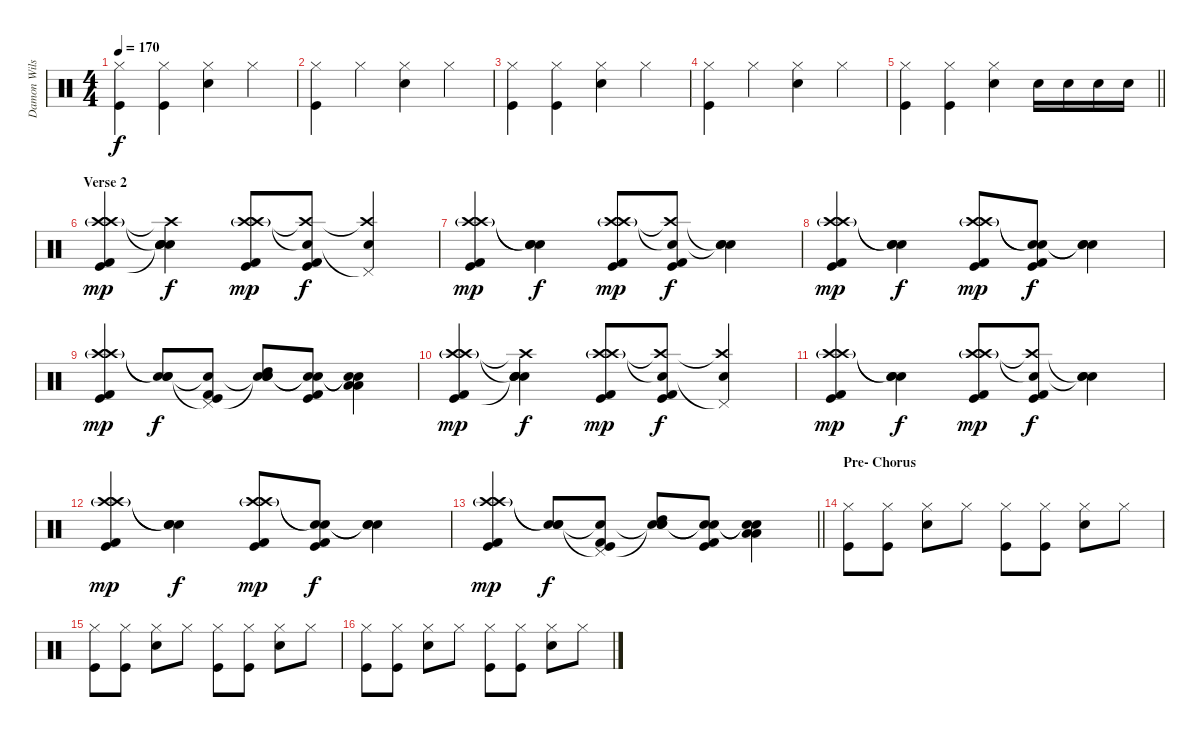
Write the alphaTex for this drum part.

\track ("Damon Wilson" "Damon Wils") {instrument percussion}
\staff {score}
\articulation defaults
\ts (4 4)
\tempo 170
\clef neutral
\ks c
("Hi-Hat (closed)" "Kick (hit)").4{dy f} ("Hi-Hat (closed)" "Kick (hit)").4 ("Hi-Hat (closed)" "Snare (hit) 2").4 "Hi-Hat (closed)".4 |
("Hi-Hat (closed)" "Kick (hit)").4 "Hi-Hat (closed)".4 ("Hi-Hat (closed)" "Snare (hit) 2").4 "Hi-Hat (closed)".4 |
("Hi-Hat (closed)" "Kick (hit)").4 ("Hi-Hat (closed)" "Kick (hit)").4 ("Hi-Hat (closed)" "Snare (hit) 2").4 "Hi-Hat (closed)".4 |
("Hi-Hat (closed)" "Kick (hit)").4 "Hi-Hat (closed)".4 ("Hi-Hat (closed)" "Snare (hit) 2").4 "Hi-Hat (closed)".4 |
\barLineRight lightlight
("Hi-Hat (closed)" "Kick (hit)").4 ("Hi-Hat (closed)" "Kick (hit)").4 ("Hi-Hat (closed)" "Snare (hit) 2").4 "Snare (hit) 2".16 "Snare (hit) 2".16 "Snare (hit) 2".16 "Snare (hit) 2".16 |
\section ("" "Verse 2")
("Crash high (hit)"{g} "Crash high (hit)"{g} "Kick (hit) 2" "Kick (hit)").4{dy mp} ("Snare (hit)"{t} "Crash high (hit)"{t} "Snare (hit) 2" "Snare (hit)"{t} "Snare (hit)").4{dy f} ("Crash high (hit)"{g} "Crash high (hit)"{g} "Kick (hit) 2" "Kick (hit)").8{dy mp} ("Snare (hit)"{t} "Crash high (hit)"{t} "Kick (hit) 2" "Kick (hit)").8{dy f} ("Pedal Hi-Hat (hit)"{t} "Crash high (hit)"{t} "Snare (hit) 2").4 |
("Crash high (hit)"{g} "Crash high (hit)"{g} "Kick (hit) 2" "Kick (hit)").4{dy mp} ("Snare (hit)"{t} "Snare (hit)"{t} "Snare (hit) 2").4{dy f} ("Crash high (hit)"{g} "Crash high (hit)"{g} "Kick (hit) 2" "Kick (hit)").8{dy mp} ("Crash high (hit)"{t} "Snare (hit)"{t} "Kick (hit) 2" "Kick (hit)").8{dy f} ("Snare (hit)"{t} "Snare (hit)"{t} "Snare (hit) 2").4 |
("Crash high (hit)"{g} "Crash high (hit)"{g} "Kick (hit) 2" "Kick (hit)").4{dy mp} ("Snare (hit)"{t} "Snare (hit)"{t} "Snare (hit) 2").4{dy f} ("Crash high (hit)"{g} "Crash high (hit)"{g} "Kick (hit) 2" "Kick (hit)").8{dy mp} ("Snare (hit)"{t} "Snare (hit)"{t} "Kick (hit) 2" "Kick (hit)").8{dy f} ("Snare (hit)"{t} "Snare (hit)"{t} "Snare (hit) 2").4 |
("Crash high (hit)"{g} "Crash high (hit)"{g} "Kick (hit) 2" "Kick (hit)").4{dy mp} ("Snare (hit)"{t} "Snare (hit)"{t} "Snare (hit) 2").8{dy f} ("Pedal Hi-Hat (hit)"{t} "Snare (hit)"{t} "Kick (hit) 2" "Kick (hit)").8 ("Snare (hit)"{t} "Snare (hit)"{t} "Snare (hit) 2" "High Tom (hit)").8 ("Snare (hit)"{t} "Snare (hit)"{t} "Kick (hit) 2" "Kick (hit)").8 ("Snare (hit)"{t} "Snare (hit)"{t} "Low Tom (hit)" "Low Floor Tom (hit)").4 |
("Crash high (hit)"{g} "Crash high (hit)"{g} "Kick (hit) 2" "Kick (hit)").4{dy mp} ("Snare (hit)"{t} "Crash high (hit)"{t} "Snare (hit) 2" "Snare (hit)"{t} "Snare (hit)").4{dy f} ("Crash high (hit)"{g} "Crash high (hit)"{g} "Kick (hit) 2" "Kick (hit)").8{dy mp} ("Snare (hit)"{t} "Crash high (hit)"{t} "Kick (hit) 2" "Kick (hit)").8{dy f} ("Pedal Hi-Hat (hit)"{t} "Crash high (hit)"{t} "Snare (hit) 2").4 |
("Crash high (hit)"{g} "Crash high (hit)"{g} "Kick (hit) 2" "Kick (hit)").4{dy mp} ("Snare (hit)"{t} "Snare (hit)"{t} "Snare (hit) 2").4{dy f} ("Crash high (hit)"{g} "Crash high (hit)"{g} "Kick (hit) 2" "Kick (hit)").8{dy mp} ("Crash high (hit)"{t} "Snare (hit)"{t} "Kick (hit) 2" "Kick (hit)").8{dy f} ("Snare (hit)"{t} "Snare (hit)"{t} "Snare (hit) 2").4 |
("Crash high (hit)"{g} "Crash high (hit)"{g} "Kick (hit) 2" "Kick (hit)").4{dy mp} ("Snare (hit)"{t} "Snare (hit)"{t} "Snare (hit) 2").4{dy f} ("Crash high (hit)"{g} "Crash high (hit)"{g} "Kick (hit) 2" "Kick (hit)").8{dy mp} ("Snare (hit)"{t} "Snare (hit)"{t} "Kick (hit) 2" "Kick (hit)").8{dy f} ("Snare (hit)"{t} "Snare (hit)"{t} "Snare (hit) 2").4 |
\barLineRight lightlight
("Crash high (hit)"{g} "Crash high (hit)"{g} "Kick (hit) 2" "Kick (hit)").4{dy mp} ("Snare (hit)"{t} "Snare (hit)"{t} "Snare (hit) 2").8{dy f} ("Pedal Hi-Hat (hit)"{t} "Snare (hit)"{t} "Kick (hit) 2" "Kick (hit)").8 ("Snare (hit)"{t} "Snare (hit)"{t} "Snare (hit) 2" "High Tom (hit)").8 ("Snare (hit)"{t} "Snare (hit)"{t} "Kick (hit) 2" "Kick (hit)").8 ("Snare (hit)"{t} "Snare (hit)"{t} "Low Tom (hit)" "Low Floor Tom (hit)").4 |
\section ("" "Pre- Chorus")
("Hi-Hat (closed)" "Kick (hit)").8 ("Hi-Hat (closed)" "Kick (hit)").8 ("Hi-Hat (closed)" "Snare (hit) 2").8 "Hi-Hat (closed)".8 ("Hi-Hat (closed)" "Kick (hit)").8 ("Hi-Hat (closed)" "Kick (hit)").8 ("Hi-Hat (closed)" "Snare (hit) 2").8 "Hi-Hat (closed)".8 |
("Hi-Hat (closed)" "Kick (hit)").8 ("Hi-Hat (closed)" "Kick (hit)").8 ("Hi-Hat (closed)" "Snare (hit) 2").8 "Hi-Hat (closed)".8 ("Hi-Hat (closed)" "Kick (hit)").8 ("Hi-Hat (closed)" "Kick (hit)").8 ("Hi-Hat (closed)" "Snare (hit) 2").8 "Hi-Hat (closed)".8 |
("Hi-Hat (closed)" "Kick (hit)").8 ("Hi-Hat (closed)" "Kick (hit)").8 ("Hi-Hat (closed)" "Snare (hit) 2").8 "Hi-Hat (closed)".8 ("Hi-Hat (closed)" "Kick (hit)").8 ("Hi-Hat (closed)" "Kick (hit)").8 ("Hi-Hat (closed)" "Snare (hit) 2").8 "Hi-Hat (closed)".8
